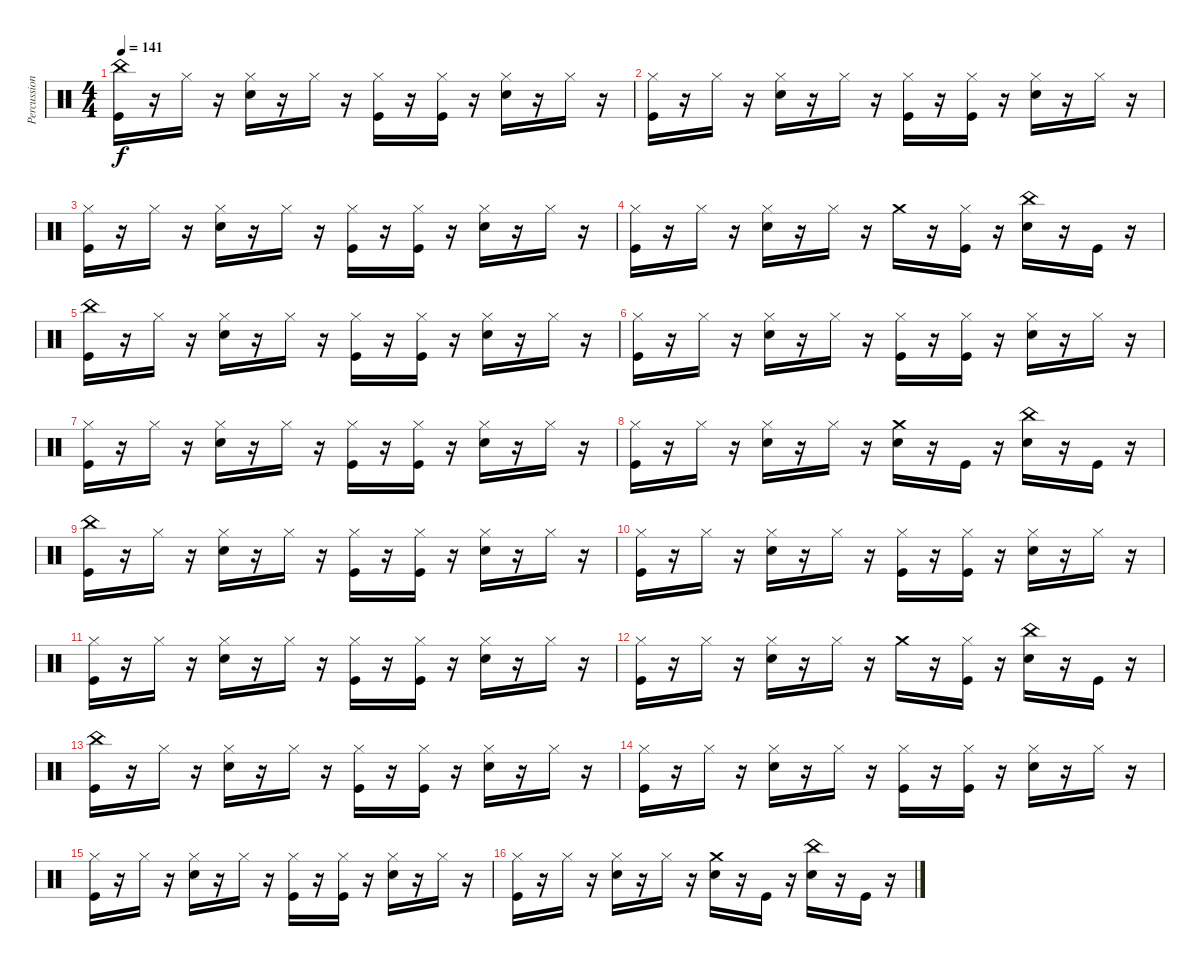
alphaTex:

\track ("Percussion" "Percussion") {instrument percussion}
\staff {score}
\articulation defaults
\ts (4 4)
\tempo 141
\clef neutral
\ks c
("China (hit)" "Kick (hit)").16{dy f} r.16 "Hi-Hat (closed)".16 r.16 ("Hi-Hat (closed)" "Electric Snare (hit)").16 r.16 "Hi-Hat (closed)".16 r.16 ("Hi-Hat (closed)" "Kick (hit)").16 r.16 ("Hi-Hat (closed)" "Kick (hit)").16 r.16 ("Hi-Hat (closed)" "Electric Snare (hit)").16 r.16 "Hi-Hat (closed)".16 r.16 |
("Hi-Hat (closed)" "Kick (hit)").16 r.16 "Hi-Hat (closed)".16 r.16 ("Hi-Hat (closed)" "Electric Snare (hit)").16 r.16 "Hi-Hat (closed)".16 r.16 ("Hi-Hat (closed)" "Kick (hit)").16 r.16 ("Hi-Hat (closed)" "Kick (hit)").16 r.16 ("Hi-Hat (closed)" "Electric Snare (hit)").16 r.16 "Hi-Hat (closed)".16 r.16 |
("Hi-Hat (closed)" "Kick (hit)").16 r.16 "Hi-Hat (closed)".16 r.16 ("Hi-Hat (closed)" "Electric Snare (hit)").16 r.16 "Hi-Hat (closed)".16 r.16 ("Hi-Hat (closed)" "Kick (hit)").16 r.16 ("Hi-Hat (closed)" "Kick (hit)").16 r.16 ("Hi-Hat (closed)" "Electric Snare (hit)").16 r.16 "Hi-Hat (closed)".16 r.16 |
("Hi-Hat (closed)" "Kick (hit)").16 r.16 "Hi-Hat (closed)".16 r.16 ("Hi-Hat (closed)" "Electric Snare (hit)").16 r.16 "Hi-Hat (closed)".16 r.16 "Crash medium (hit)".16 r.16 ("Hi-Hat (closed)" "Kick (hit)").16 r.16 ("China (hit)" "Electric Snare (hit)").16 r.16 "Kick (hit)".16 r.16 |
("China (hit)" "Kick (hit)").16 r.16 "Hi-Hat (closed)".16 r.16 ("Hi-Hat (closed)" "Electric Snare (hit)").16 r.16 "Hi-Hat (closed)".16 r.16 ("Hi-Hat (closed)" "Kick (hit)").16 r.16 ("Hi-Hat (closed)" "Kick (hit)").16 r.16 ("Hi-Hat (closed)" "Electric Snare (hit)").16 r.16 "Hi-Hat (closed)".16 r.16 |
("Hi-Hat (closed)" "Kick (hit)").16 r.16 "Hi-Hat (closed)".16 r.16 ("Hi-Hat (closed)" "Electric Snare (hit)").16 r.16 "Hi-Hat (closed)".16 r.16 ("Hi-Hat (closed)" "Kick (hit)").16 r.16 ("Hi-Hat (closed)" "Kick (hit)").16 r.16 ("Hi-Hat (closed)" "Electric Snare (hit)").16 r.16 "Hi-Hat (closed)".16 r.16 |
("Hi-Hat (closed)" "Kick (hit)").16 r.16 "Hi-Hat (closed)".16 r.16 ("Hi-Hat (closed)" "Electric Snare (hit)").16 r.16 "Hi-Hat (closed)".16 r.16 ("Hi-Hat (closed)" "Kick (hit)").16 r.16 ("Hi-Hat (closed)" "Kick (hit)").16 r.16 ("Hi-Hat (closed)" "Electric Snare (hit)").16 r.16 "Hi-Hat (closed)".16 r.16 |
("Hi-Hat (closed)" "Kick (hit)").16 r.16 "Hi-Hat (closed)".16 r.16 ("Hi-Hat (closed)" "Electric Snare (hit)").16 r.16 "Hi-Hat (closed)".16 r.16 ("Crash medium (hit)" "Electric Snare (hit)").16 r.16 "Kick (hit)".16 r.16 ("China (hit)" "Electric Snare (hit)").16 r.16 "Kick (hit)".16 r.16 |
("China (hit)" "Kick (hit)").16 r.16 "Hi-Hat (closed)".16 r.16 ("Hi-Hat (closed)" "Electric Snare (hit)").16 r.16 "Hi-Hat (closed)".16 r.16 ("Hi-Hat (closed)" "Kick (hit)").16 r.16 ("Hi-Hat (closed)" "Kick (hit)").16 r.16 ("Hi-Hat (closed)" "Electric Snare (hit)").16 r.16 "Hi-Hat (closed)".16 r.16 |
("Hi-Hat (closed)" "Kick (hit)").16 r.16 "Hi-Hat (closed)".16 r.16 ("Hi-Hat (closed)" "Electric Snare (hit)").16 r.16 "Hi-Hat (closed)".16 r.16 ("Hi-Hat (closed)" "Kick (hit)").16 r.16 ("Hi-Hat (closed)" "Kick (hit)").16 r.16 ("Hi-Hat (closed)" "Electric Snare (hit)").16 r.16 "Hi-Hat (closed)".16 r.16 |
("Hi-Hat (closed)" "Kick (hit)").16 r.16 "Hi-Hat (closed)".16 r.16 ("Hi-Hat (closed)" "Electric Snare (hit)").16 r.16 "Hi-Hat (closed)".16 r.16 ("Hi-Hat (closed)" "Kick (hit)").16 r.16 ("Hi-Hat (closed)" "Kick (hit)").16 r.16 ("Hi-Hat (closed)" "Electric Snare (hit)").16 r.16 "Hi-Hat (closed)".16 r.16 |
("Hi-Hat (closed)" "Kick (hit)").16 r.16 "Hi-Hat (closed)".16 r.16 ("Hi-Hat (closed)" "Electric Snare (hit)").16 r.16 "Hi-Hat (closed)".16 r.16 "Crash medium (hit)".16 r.16 ("Hi-Hat (closed)" "Kick (hit)").16 r.16 ("China (hit)" "Electric Snare (hit)").16 r.16 "Kick (hit)".16 r.16 |
("China (hit)" "Kick (hit)").16 r.16 "Hi-Hat (closed)".16 r.16 ("Hi-Hat (closed)" "Electric Snare (hit)").16 r.16 "Hi-Hat (closed)".16 r.16 ("Hi-Hat (closed)" "Kick (hit)").16 r.16 ("Hi-Hat (closed)" "Kick (hit)").16 r.16 ("Hi-Hat (closed)" "Electric Snare (hit)").16 r.16 "Hi-Hat (closed)".16 r.16 |
("Hi-Hat (closed)" "Kick (hit)").16 r.16 "Hi-Hat (closed)".16 r.16 ("Hi-Hat (closed)" "Electric Snare (hit)").16 r.16 "Hi-Hat (closed)".16 r.16 ("Hi-Hat (closed)" "Kick (hit)").16 r.16 ("Hi-Hat (closed)" "Kick (hit)").16 r.16 ("Hi-Hat (closed)" "Electric Snare (hit)").16 r.16 "Hi-Hat (closed)".16 r.16 |
("Hi-Hat (closed)" "Kick (hit)").16 r.16 "Hi-Hat (closed)".16 r.16 ("Hi-Hat (closed)" "Electric Snare (hit)").16 r.16 "Hi-Hat (closed)".16 r.16 ("Hi-Hat (closed)" "Kick (hit)").16 r.16 ("Hi-Hat (closed)" "Kick (hit)").16 r.16 ("Hi-Hat (closed)" "Electric Snare (hit)").16 r.16 "Hi-Hat (closed)".16 r.16 |
("Hi-Hat (closed)" "Kick (hit)").16 r.16 "Hi-Hat (closed)".16 r.16 ("Hi-Hat (closed)" "Electric Snare (hit)").16 r.16 "Hi-Hat (closed)".16 r.16 ("Crash medium (hit)" "Electric Snare (hit)").16 r.16 "Kick (hit)".16 r.16 ("China (hit)" "Electric Snare (hit)").16 r.16 "Kick (hit)".16 r.16
